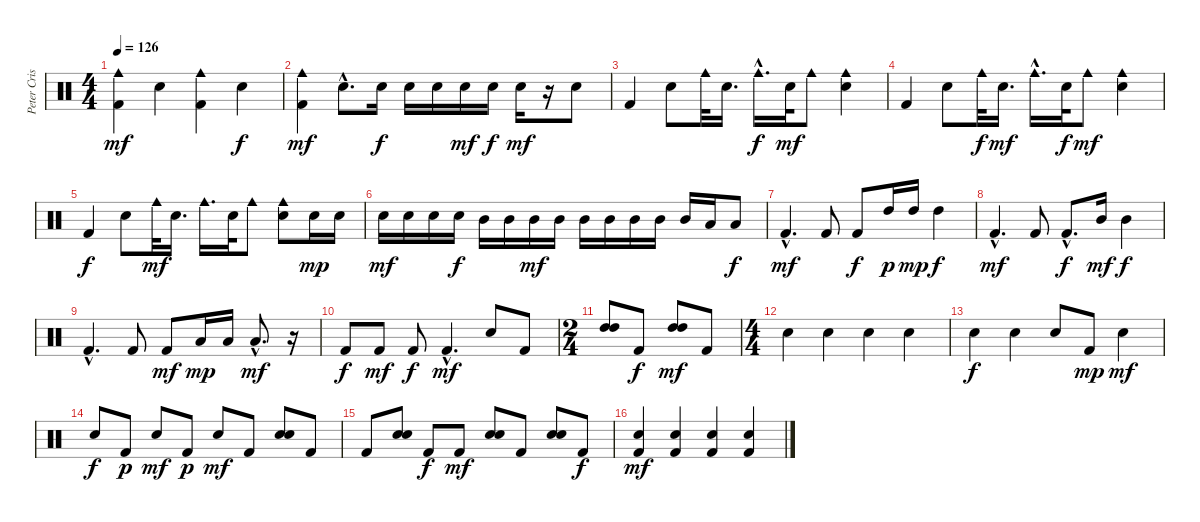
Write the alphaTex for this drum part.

\track ("Peter Criss" "Peter Cris") {instrument percussion}
\staff {score}
\articulation defaults
\ts (4 4)
\tempo 126
\clef neutral
\ks c
("Cowbell medium (hit)" "Kick (hit) 2").4{dy mf} "Electric Snare (hit)".4 ("Cowbell medium (hit)" "Kick (hit) 2").4 "Electric Snare (hit)".4{dy f} |
("Kick (hit) 2" "Cowbell medium (hit)").4{dy mf} "Electric Snare (hit)"{hac}.8{d} "Electric Snare (hit)".16{dy f} "Electric Snare (hit)".16 "Electric Snare (hit)".16 "Electric Snare (hit)".16{dy mf} "Electric Snare (hit)".16{dy f} "Electric Snare (hit)".16{dy mf} r.16 "Electric Snare (hit)".8 |
"Kick (hit) 2".4 "Electric Snare (hit)".8 "Cowbell medium (hit)".32 "Electric Snare (hit)".16{d} "Cowbell medium (hit)"{hac}.16{d dy f} "Electric Snare (hit)".32{dy mf} "Cowbell medium (hit)".8 ("Cowbell medium (hit)" "Electric Snare (hit)").4 |
"Kick (hit) 2".4 "Electric Snare (hit)".8 "Cowbell medium (hit)".32{dy f} "Electric Snare (hit)".16{d dy mf} "Cowbell medium (hit)"{hac}.16{d} "Electric Snare (hit)".32{dy f} "Cowbell medium (hit)".8{dy mf} ("Cowbell medium (hit)" "Electric Snare (hit)").4 |
"Kick (hit) 2".4{dy f} "Electric Snare (hit)".8 "Cowbell medium (hit)".32{dy mf} "Electric Snare (hit)".16{d} "Cowbell medium (hit)".16{d} "Electric Snare (hit)".32 "Cowbell medium (hit)".8 ("Cowbell medium (hit)" "Electric Snare (hit)").8 "Electric Snare (hit)".16{dy mp} "Electric Snare (hit)".16 |
"Electric Snare (hit)".16{dy mf} "Electric Snare (hit)".16 "Electric Snare (hit)".16 "Electric Snare (hit)".16{dy f} "Mid Tom (hit)".16 "Mid Tom (hit)".16 "Mid Tom (hit)".16{dy mf} "Mid Tom (hit)".16 "Mid Tom (hit)".16 "Mid Tom (hit)".16 "Mid Tom (hit)".16 "Mid Tom (hit)".16 "Mid Tom (hit)".16 "Low Tom (hit)".16 "Low Tom (hit)".8{dy f} |
"Kick (hit) 2"{hac}.4{d dy mf} "Kick (hit) 2".8 "Kick (hit) 2".8{dy f} "High Tom (hit)".16{dy p} "High Tom (hit)".16{dy mp} "High Tom (hit)".4{dy f} |
"Kick (hit) 2"{hac}.4{d dy mf} "Kick (hit) 2".8 "Kick (hit) 2"{hac}.8{d dy f} "Mid Tom (hit)".16{dy mf} "Mid Tom (hit)".4{dy f} |
"Kick (hit) 2"{hac}.4{d} "Kick (hit) 2".8 "Kick (hit) 2".8{dy mf} "Low Tom (hit)".16{dy mp} "Low Tom (hit)".16 "Low Tom (hit)"{hac}.8{d dy mf} r.16 |
"Kick (hit) 2".8{dy f} "Kick (hit) 2".8{dy mf} "Kick (hit) 2".8{dy f} "Kick (hit) 2"{hac}.4{d dy mf} "Electric Snare (hit)".8 "Kick (hit) 2".8 |
\ts (2 4)
("High Tom (hit)" "High Tom (hit)").8 "Kick (hit) 2".8{dy f} ("High Tom (hit)" "High Tom (hit)").8{dy mf} "Kick (hit) 2".8 |
\ts (4 4)
"Electric Snare (hit)".4 "Electric Snare (hit)".4 "Electric Snare (hit)".4 "Electric Snare (hit)".4 |
"Electric Snare (hit)".4{dy f} "Electric Snare (hit)".4 "Electric Snare (hit)".8 "Kick (hit) 2".8{dy mp} "Electric Snare (hit)".4{dy mf} |
"Electric Snare (hit)".8{dy f} "Kick (hit) 2".8{dy p} "Electric Snare (hit)".8{dy mf} "Kick (hit) 2".8{dy p} "Electric Snare (hit)".8{dy mf} "Kick (hit) 2".8 ("Electric Snare (hit)" "Electric Snare (hit)").8 "Kick (hit) 2".8 |
"Kick (hit) 2".8 ("Electric Snare (hit)" "Electric Snare (hit)").8 "Kick (hit) 2".8{dy f} "Kick (hit) 2".8{dy mf} ("Electric Snare (hit)" "Electric Snare (hit)").8 "Kick (hit) 2".8 ("Electric Snare (hit)" "Electric Snare (hit)").8 "Kick (hit) 2".8{dy f} |
("Kick (hit) 2" "Electric Snare (hit)").4{dy mf} ("Kick (hit) 2" "Electric Snare (hit)").4 ("Kick (hit) 2" "Electric Snare (hit)").4 ("Kick (hit) 2" "Electric Snare (hit)").4
